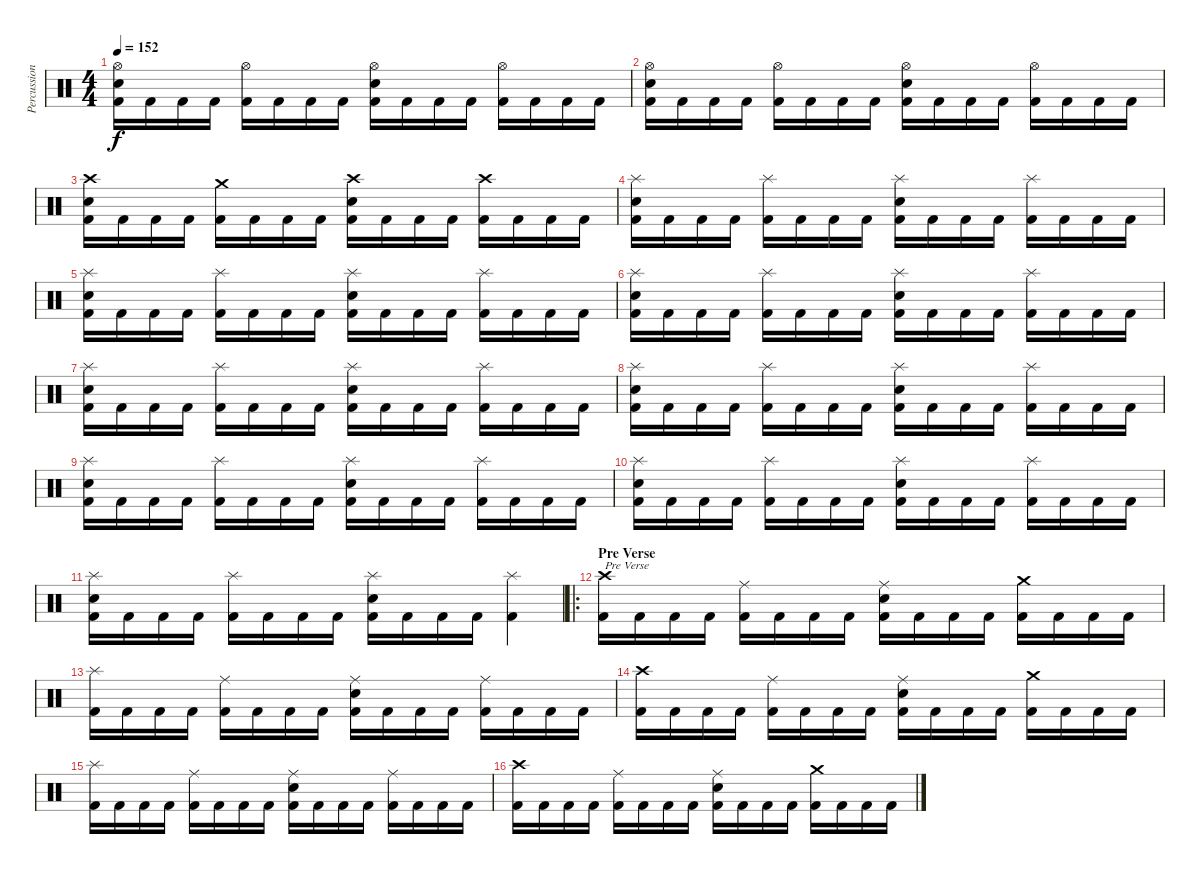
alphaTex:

\track ("Percussion" "Percussion") {instrument percussion}
\staff {score}
\articulation defaults
\ts (4 4)
\tempo 152
\clef neutral
\ks c
("Hi-Hat (open)" "Electric Snare (hit)" "Kick (hit) 2").16{dy f} "Kick (hit) 2".16 "Kick (hit) 2".16 "Kick (hit) 2".16 ("Hi-Hat (open)" "Kick (hit) 2").16 "Kick (hit) 2".16 "Kick (hit) 2".16 "Kick (hit) 2".16 ("Hi-Hat (open)" "Electric Snare (hit)" "Kick (hit) 2").16 "Kick (hit) 2".16 "Kick (hit) 2".16 "Kick (hit) 2".16 ("Hi-Hat (open)" "Kick (hit) 2").16 "Kick (hit) 2".16 "Kick (hit) 2".16 "Kick (hit) 2".16 |
("Hi-Hat (open)" "Electric Snare (hit)" "Kick (hit) 2").16 "Kick (hit) 2".16 "Kick (hit) 2".16 "Kick (hit) 2".16 ("Hi-Hat (open)" "Kick (hit) 2").16 "Kick (hit) 2".16 "Kick (hit) 2".16 "Kick (hit) 2".16 ("Hi-Hat (open)" "Electric Snare (hit)" "Kick (hit) 2").16 "Kick (hit) 2".16 "Kick (hit) 2".16 "Kick (hit) 2".16 ("Hi-Hat (open)" "Kick (hit) 2").16 "Kick (hit) 2".16 "Kick (hit) 2".16 "Kick (hit) 2".16 |
("Crash high (hit)" "Electric Snare (hit)" "Kick (hit) 2").16 "Kick (hit) 2".16 "Kick (hit) 2".16 "Kick (hit) 2".16 ("Crash medium (hit)" "Kick (hit) 2").16 "Kick (hit) 2".16 "Kick (hit) 2".16 "Kick (hit) 2".16 ("Crash high (hit)" "Electric Snare (hit)" "Kick (hit) 2").16 "Kick (hit) 2".16 "Kick (hit) 2".16 "Kick (hit) 2".16 ("Crash high (hit)" "Kick (hit) 2").16 "Kick (hit) 2".16 "Kick (hit) 2".16 "Kick (hit) 2".16 |
("Splash (hit)" "Electric Snare (hit)" "Kick (hit) 2").16 "Kick (hit) 2".16 "Kick (hit) 2".16 "Kick (hit) 2".16 ("Splash (hit)" "Kick (hit) 2").16 "Kick (hit) 2".16 "Kick (hit) 2".16 "Kick (hit) 2".16 ("Splash (hit)" "Electric Snare (hit)" "Kick (hit) 2").16 "Kick (hit) 2".16 "Kick (hit) 2".16 "Kick (hit) 2".16 ("Splash (hit)" "Kick (hit) 2").16 "Kick (hit) 2".16 "Kick (hit) 2".16 "Kick (hit) 2".16 |
("Splash (hit)" "Electric Snare (hit)" "Kick (hit) 2").16 "Kick (hit) 2".16 "Kick (hit) 2".16 "Kick (hit) 2".16 ("Splash (hit)" "Kick (hit) 2").16 "Kick (hit) 2".16 "Kick (hit) 2".16 "Kick (hit) 2".16 ("Splash (hit)" "Electric Snare (hit)" "Kick (hit) 2").16 "Kick (hit) 2".16 "Kick (hit) 2".16 "Kick (hit) 2".16 ("Splash (hit)" "Kick (hit) 2").16 "Kick (hit) 2".16 "Kick (hit) 2".16 "Kick (hit) 2".16 |
("Splash (hit)" "Electric Snare (hit)" "Kick (hit) 2").16 "Kick (hit) 2".16 "Kick (hit) 2".16 "Kick (hit) 2".16 ("Splash (hit)" "Kick (hit) 2").16 "Kick (hit) 2".16 "Kick (hit) 2".16 "Kick (hit) 2".16 ("Splash (hit)" "Electric Snare (hit)" "Kick (hit) 2").16 "Kick (hit) 2".16 "Kick (hit) 2".16 "Kick (hit) 2".16 ("Splash (hit)" "Kick (hit) 2").16 "Kick (hit) 2".16 "Kick (hit) 2".16 "Kick (hit) 2".16 |
("Splash (hit)" "Electric Snare (hit)" "Kick (hit) 2").16 "Kick (hit) 2".16 "Kick (hit) 2".16 "Kick (hit) 2".16 ("Splash (hit)" "Kick (hit) 2").16 "Kick (hit) 2".16 "Kick (hit) 2".16 "Kick (hit) 2".16 ("Splash (hit)" "Electric Snare (hit)" "Kick (hit) 2").16 "Kick (hit) 2".16 "Kick (hit) 2".16 "Kick (hit) 2".16 ("Splash (hit)" "Kick (hit) 2").16 "Kick (hit) 2".16 "Kick (hit) 2".16 "Kick (hit) 2".16 |
("Splash (hit)" "Electric Snare (hit)" "Kick (hit) 2").16 "Kick (hit) 2".16 "Kick (hit) 2".16 "Kick (hit) 2".16 ("Splash (hit)" "Kick (hit) 2").16 "Kick (hit) 2".16 "Kick (hit) 2".16 "Kick (hit) 2".16 ("Splash (hit)" "Electric Snare (hit)" "Kick (hit) 2").16 "Kick (hit) 2".16 "Kick (hit) 2".16 "Kick (hit) 2".16 ("Splash (hit)" "Kick (hit) 2").16 "Kick (hit) 2".16 "Kick (hit) 2".16 "Kick (hit) 2".16 |
("Splash (hit)" "Electric Snare (hit)" "Kick (hit) 2").16 "Kick (hit) 2".16 "Kick (hit) 2".16 "Kick (hit) 2".16 ("Splash (hit)" "Kick (hit) 2").16 "Kick (hit) 2".16 "Kick (hit) 2".16 "Kick (hit) 2".16 ("Splash (hit)" "Electric Snare (hit)" "Kick (hit) 2").16 "Kick (hit) 2".16 "Kick (hit) 2".16 "Kick (hit) 2".16 ("Splash (hit)" "Kick (hit) 2").16 "Kick (hit) 2".16 "Kick (hit) 2".16 "Kick (hit) 2".16 |
("Splash (hit)" "Electric Snare (hit)" "Kick (hit) 2").16 "Kick (hit) 2".16 "Kick (hit) 2".16 "Kick (hit) 2".16 ("Splash (hit)" "Kick (hit) 2").16 "Kick (hit) 2".16 "Kick (hit) 2".16 "Kick (hit) 2".16 ("Splash (hit)" "Electric Snare (hit)" "Kick (hit) 2").16 "Kick (hit) 2".16 "Kick (hit) 2".16 "Kick (hit) 2".16 ("Splash (hit)" "Kick (hit) 2").16 "Kick (hit) 2".16 "Kick (hit) 2".16 "Kick (hit) 2".16 |
("Splash (hit)" "Electric Snare (hit)" "Kick (hit) 2").16 "Kick (hit) 2".16 "Kick (hit) 2".16 "Kick (hit) 2".16 ("Splash (hit)" "Kick (hit) 2").16 "Kick (hit) 2".16 "Kick (hit) 2".16 "Kick (hit) 2".16 ("Splash (hit)" "Electric Snare (hit)" "Kick (hit) 2").16 "Kick (hit) 2".16 "Kick (hit) 2".16 "Kick (hit) 2".16 ("Splash (hit)" "Kick (hit) 2").4 |
\ro
\section ("" "Pre Verse")
("Crash high (hit)" "Kick (hit) 2").16{txt "Pre Verse"} "Kick (hit) 2".16 "Kick (hit) 2".16 "Kick (hit) 2".16 ("Ride (middle)" "Kick (hit) 2").16 "Kick (hit) 2".16 "Kick (hit) 2".16 "Kick (hit) 2".16 ("Ride (middle)" "Electric Snare (hit)" "Kick (hit) 2").16 "Kick (hit) 2".16 "Kick (hit) 2".16 "Kick (hit) 2".16 ("Crash medium (hit)" "Kick (hit) 2").16 "Kick (hit) 2".16 "Kick (hit) 2".16 "Kick (hit) 2".16 |
("Splash (hit)" "Kick (hit) 2").16 "Kick (hit) 2".16 "Kick (hit) 2".16 "Kick (hit) 2".16 ("Ride (middle)" "Kick (hit) 2").16 "Kick (hit) 2".16 "Kick (hit) 2".16 "Kick (hit) 2".16 ("Ride (middle)" "Electric Snare (hit)" "Kick (hit) 2").16 "Kick (hit) 2".16 "Kick (hit) 2".16 "Kick (hit) 2".16 ("Ride (middle)" "Kick (hit) 2").16 "Kick (hit) 2".16 "Kick (hit) 2".16 "Kick (hit) 2".16 |
("Crash high (hit)" "Kick (hit) 2").16 "Kick (hit) 2".16 "Kick (hit) 2".16 "Kick (hit) 2".16 ("Ride (middle)" "Kick (hit) 2").16 "Kick (hit) 2".16 "Kick (hit) 2".16 "Kick (hit) 2".16 ("Ride (middle)" "Electric Snare (hit)" "Kick (hit) 2").16 "Kick (hit) 2".16 "Kick (hit) 2".16 "Kick (hit) 2".16 ("Crash medium (hit)" "Kick (hit) 2").16 "Kick (hit) 2".16 "Kick (hit) 2".16 "Kick (hit) 2".16 |
("Splash (hit)" "Kick (hit) 2").16 "Kick (hit) 2".16 "Kick (hit) 2".16 "Kick (hit) 2".16 ("Ride (middle)" "Kick (hit) 2").16 "Kick (hit) 2".16 "Kick (hit) 2".16 "Kick (hit) 2".16 ("Ride (middle)" "Electric Snare (hit)" "Kick (hit) 2").16 "Kick (hit) 2".16 "Kick (hit) 2".16 "Kick (hit) 2".16 ("Ride (middle)" "Kick (hit) 2").16 "Kick (hit) 2".16 "Kick (hit) 2".16 "Kick (hit) 2".16 |
("Crash high (hit)" "Kick (hit) 2").16 "Kick (hit) 2".16 "Kick (hit) 2".16 "Kick (hit) 2".16 ("Ride (middle)" "Kick (hit) 2").16 "Kick (hit) 2".16 "Kick (hit) 2".16 "Kick (hit) 2".16 ("Ride (middle)" "Electric Snare (hit)" "Kick (hit) 2").16 "Kick (hit) 2".16 "Kick (hit) 2".16 "Kick (hit) 2".16 ("Crash medium (hit)" "Kick (hit) 2").16 "Kick (hit) 2".16 "Kick (hit) 2".16 "Kick (hit) 2".16
